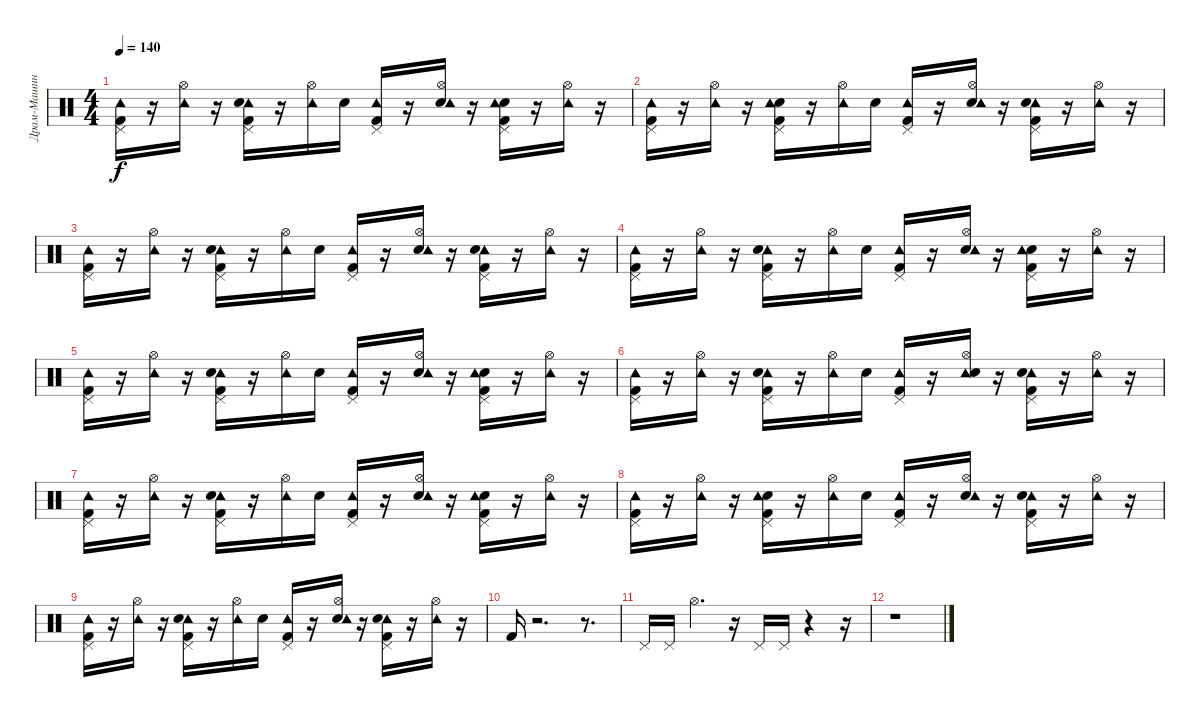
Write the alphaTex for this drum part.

\track ("Драм-Машина" "Драм-Машин") {instrument percussion}
\staff {score}
\articulation defaults
\ts (4 4)
\tempo 140
\clef neutral
\ks c
("Tambourine (hit)" "Kick (hit) 2" "Pedal Hi-Hat (hit)").16{dy f} r.16 ("Tambourine (hit)" "Hi-Hat (open)").16 r.16 ("Tambourine (hit)" "Pedal Hi-Hat (hit)" "Kick (hit) 2" "Snare (hit) 2").16 r.16 ("Tambourine (hit)" "Hi-Hat (open)").16 "Snare (hit) 2".16 ("Pedal Hi-Hat (hit)" "Tambourine (hit)" "Kick (hit) 2").16 r.16 ("Hi-Hat (open)" "Snare (hit) 2" "Tambourine (hit)").16 r.16 ("Snare (hit) 2" "Kick (hit) 2" "Pedal Hi-Hat (hit)" "Tambourine (hit)").16 r.16 ("Hi-Hat (open)" "Tambourine (hit)").16 r.16 |
("Kick (hit) 2" "Tambourine (hit)" "Pedal Hi-Hat (hit)").16 r.16 ("Hi-Hat (open)" "Tambourine (hit)").16 r.16 ("Pedal Hi-Hat (hit)" "Snare (hit) 2" "Tambourine (hit)" "Kick (hit) 2").16 r.16 ("Hi-Hat (open)" "Tambourine (hit)").16 "Snare (hit) 2".16 ("Tambourine (hit)" "Kick (hit) 2" "Pedal Hi-Hat (hit)").16 r.16 ("Snare (hit) 2" "Tambourine (hit)" "Hi-Hat (open)").16 r.16 ("Kick (hit) 2" "Tambourine (hit)" "Snare (hit) 2" "Pedal Hi-Hat (hit)").16 r.16 ("Hi-Hat (open)" "Tambourine (hit)").16 r.16 |
("Tambourine (hit)" "Pedal Hi-Hat (hit)" "Kick (hit) 2").16 r.16 ("Tambourine (hit)" "Hi-Hat (open)").16 r.16 ("Tambourine (hit)" "Pedal Hi-Hat (hit)" "Snare (hit) 2" "Kick (hit) 2").16 r.16 ("Tambourine (hit)" "Hi-Hat (open)").16 "Snare (hit) 2".16 ("Pedal Hi-Hat (hit)" "Tambourine (hit)" "Kick (hit) 2").16 r.16 ("Snare (hit) 2" "Tambourine (hit)" "Hi-Hat (open)").16 r.16 ("Tambourine (hit)" "Snare (hit) 2" "Pedal Hi-Hat (hit)" "Kick (hit) 2").16 r.16 ("Tambourine (hit)" "Hi-Hat (open)").16 r.16 |
("Tambourine (hit)" "Kick (hit) 2" "Pedal Hi-Hat (hit)").16 r.16 ("Hi-Hat (open)" "Tambourine (hit)").16 r.16 ("Pedal Hi-Hat (hit)" "Kick (hit) 2" "Tambourine (hit)" "Snare (hit) 2").16 r.16 ("Tambourine (hit)" "Hi-Hat (open)").16 "Snare (hit) 2".16 ("Tambourine (hit)" "Pedal Hi-Hat (hit)" "Kick (hit) 2").16 r.16 ("Snare (hit) 2" "Tambourine (hit)" "Hi-Hat (open)").16 r.16 ("Snare (hit) 2" "Kick (hit) 2" "Pedal Hi-Hat (hit)" "Tambourine (hit)").16 r.16 ("Tambourine (hit)" "Hi-Hat (open)").16 r.16 |
("Pedal Hi-Hat (hit)" "Tambourine (hit)" "Kick (hit) 2").16 r.16 ("Tambourine (hit)" "Hi-Hat (open)").16 r.16 ("Pedal Hi-Hat (hit)" "Kick (hit) 2" "Tambourine (hit)" "Snare (hit) 2").16 r.16 ("Tambourine (hit)" "Hi-Hat (open)").16 "Snare (hit) 2".16 ("Kick (hit) 2" "Pedal Hi-Hat (hit)" "Tambourine (hit)").16 r.16 ("Snare (hit) 2" "Tambourine (hit)" "Hi-Hat (open)").16 r.16 ("Snare (hit) 2" "Pedal Hi-Hat (hit)" "Kick (hit) 2" "Tambourine (hit)").16 r.16 ("Tambourine (hit)" "Hi-Hat (open)").16 r.16 |
("Pedal Hi-Hat (hit)" "Kick (hit) 2" "Tambourine (hit)").16 r.16 ("Tambourine (hit)" "Hi-Hat (open)").16 r.16 ("Kick (hit) 2" "Tambourine (hit)" "Pedal Hi-Hat (hit)" "Snare (hit) 2").16 r.16 ("Tambourine (hit)" "Hi-Hat (open)").16 "Snare (hit) 2".16 ("Tambourine (hit)" "Pedal Hi-Hat (hit)" "Kick (hit) 2").16 r.16 ("Tambourine (hit)" "Snare (hit) 2" "Hi-Hat (open)").16 r.16 ("Pedal Hi-Hat (hit)" "Kick (hit) 2" "Tambourine (hit)" "Snare (hit) 2").16 r.16 ("Tambourine (hit)" "Hi-Hat (open)").16 r.16 |
("Pedal Hi-Hat (hit)" "Kick (hit) 2" "Tambourine (hit)").16 r.16 ("Tambourine (hit)" "Hi-Hat (open)").16 r.16 ("Kick (hit) 2" "Tambourine (hit)" "Pedal Hi-Hat (hit)" "Snare (hit) 2").16 r.16 ("Hi-Hat (open)" "Tambourine (hit)").16 "Snare (hit) 2".16 ("Tambourine (hit)" "Kick (hit) 2" "Pedal Hi-Hat (hit)").16 r.16 ("Hi-Hat (open)" "Snare (hit) 2" "Tambourine (hit)").16 r.16 ("Snare (hit) 2" "Tambourine (hit)" "Kick (hit) 2" "Pedal Hi-Hat (hit)").16 r.16 ("Hi-Hat (open)" "Tambourine (hit)").16 r.16 |
("Tambourine (hit)" "Pedal Hi-Hat (hit)" "Kick (hit) 2").16 r.16 ("Tambourine (hit)" "Hi-Hat (open)").16 r.16 ("Snare (hit) 2" "Tambourine (hit)" "Kick (hit) 2" "Pedal Hi-Hat (hit)").16 r.16 ("Hi-Hat (open)" "Tambourine (hit)").16 "Snare (hit) 2".16 ("Pedal Hi-Hat (hit)" "Kick (hit) 2" "Tambourine (hit)").16 r.16 ("Snare (hit) 2" "Hi-Hat (open)" "Tambourine (hit)").16 r.16 ("Kick (hit) 2" "Pedal Hi-Hat (hit)" "Tambourine (hit)" "Snare (hit) 2").16 r.16 ("Tambourine (hit)" "Hi-Hat (open)").16 r.16 |
("Tambourine (hit)" "Pedal Hi-Hat (hit)" "Kick (hit) 2").16 r.16 ("Hi-Hat (open)" "Tambourine (hit)").16 r.16 ("Kick (hit) 2" "Tambourine (hit)" "Snare (hit) 2" "Pedal Hi-Hat (hit)").16 r.16 ("Tambourine (hit)" "Hi-Hat (open)").16 "Snare (hit) 2".16 ("Kick (hit) 2" "Pedal Hi-Hat (hit)" "Tambourine (hit)").16 r.16 ("Hi-Hat (open)" "Snare (hit) 2" "Tambourine (hit)").16 r.16 ("Pedal Hi-Hat (hit)" "Tambourine (hit)" "Snare (hit) 2" "Kick (hit) 2").16 r.16 ("Tambourine (hit)" "Hi-Hat (open)").16 r.16 |
"Kick (hit) 2".16 r.2{d} r.8{d} |
"Pedal Hi-Hat (hit)".16 "Pedal Hi-Hat (hit)".16 "Hi-Hat (open)".4{d} r.16 "Pedal Hi-Hat (hit)".16 "Pedal Hi-Hat (hit)".16 r.4 r.16 |
r.1
